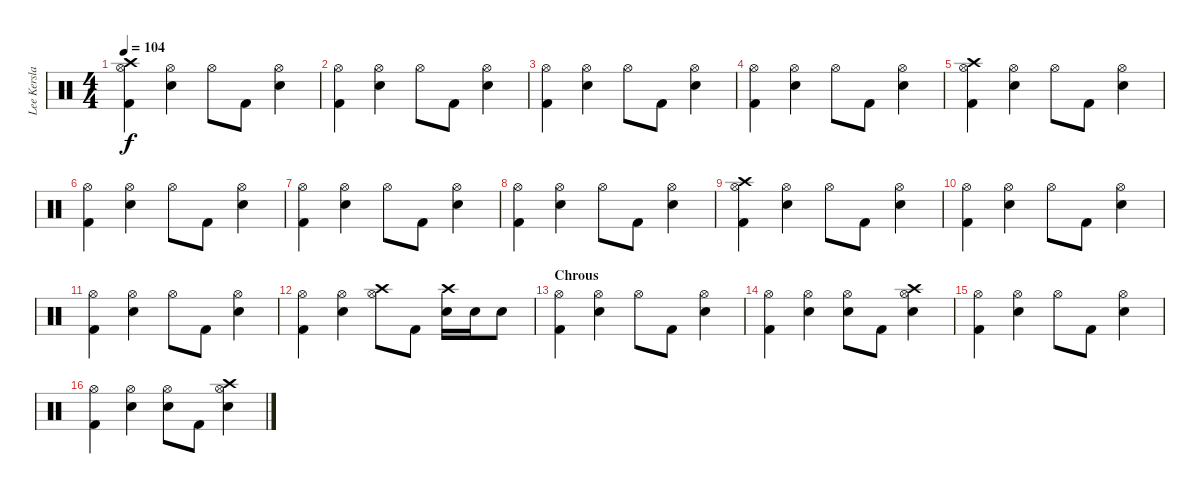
\track ("Lee Kerslake" "Lee Kersla") {instrument percussion}
\staff {score}
\articulation defaults
\ts (4 4)
\tempo 104
\clef neutral
\ks c
("Crash high (hit)" "Hi-Hat (open)" "Kick (hit) 2").4{dy f} ("Hi-Hat (open)" "Electric Snare (hit)").4 "Hi-Hat (open)".8 "Kick (hit) 2".8 ("Hi-Hat (open)" "Electric Snare (hit)").4 |
("Hi-Hat (open)" "Kick (hit) 2").4 ("Hi-Hat (open)" "Electric Snare (hit)").4 "Hi-Hat (open)".8 "Kick (hit) 2".8 ("Hi-Hat (open)" "Electric Snare (hit)").4 |
("Hi-Hat (open)" "Kick (hit) 2").4 ("Hi-Hat (open)" "Electric Snare (hit)").4 "Hi-Hat (open)".8 "Kick (hit) 2".8 ("Hi-Hat (open)" "Electric Snare (hit)").4 |
("Hi-Hat (open)" "Kick (hit) 2").4 ("Hi-Hat (open)" "Electric Snare (hit)").4 "Hi-Hat (open)".8 "Kick (hit) 2".8 ("Hi-Hat (open)" "Electric Snare (hit)").4 |
("Crash high (hit)" "Hi-Hat (open)" "Kick (hit) 2").4 ("Hi-Hat (open)" "Electric Snare (hit)").4 "Hi-Hat (open)".8 "Kick (hit) 2".8 ("Hi-Hat (open)" "Electric Snare (hit)").4 |
("Hi-Hat (open)" "Kick (hit) 2").4 ("Hi-Hat (open)" "Electric Snare (hit)").4 "Hi-Hat (open)".8 "Kick (hit) 2".8 ("Hi-Hat (open)" "Electric Snare (hit)").4 |
("Hi-Hat (open)" "Kick (hit) 2").4 ("Hi-Hat (open)" "Electric Snare (hit)").4 "Hi-Hat (open)".8 "Kick (hit) 2".8 ("Hi-Hat (open)" "Electric Snare (hit)").4 |
("Hi-Hat (open)" "Kick (hit) 2").4 ("Hi-Hat (open)" "Electric Snare (hit)").4 "Hi-Hat (open)".8 "Kick (hit) 2".8 ("Hi-Hat (open)" "Electric Snare (hit)").4 |
("Crash high (hit)" "Hi-Hat (open)" "Kick (hit) 2").4 ("Hi-Hat (open)" "Electric Snare (hit)").4 "Hi-Hat (open)".8 "Kick (hit) 2".8 ("Hi-Hat (open)" "Electric Snare (hit)").4 |
("Hi-Hat (open)" "Kick (hit) 2").4 ("Hi-Hat (open)" "Electric Snare (hit)").4 "Hi-Hat (open)".8 "Kick (hit) 2".8 ("Hi-Hat (open)" "Electric Snare (hit)").4 |
("Hi-Hat (open)" "Kick (hit) 2").4 ("Hi-Hat (open)" "Electric Snare (hit)").4 "Hi-Hat (open)".8 "Kick (hit) 2".8 ("Hi-Hat (open)" "Electric Snare (hit)").4 |
("Hi-Hat (open)" "Kick (hit) 2").4 ("Hi-Hat (open)" "Electric Snare (hit)").4 ("Crash high (hit)" "Hi-Hat (open)").8 "Kick (hit) 2".8 ("Crash high (hit)" "Electric Snare (hit)").16 "Electric Snare (hit)".16 "Electric Snare (hit)".8 |
\section ("" "Chrous")
("Hi-Hat (open)" "Kick (hit) 2").4 ("Hi-Hat (open)" "Electric Snare (hit)").4 "Hi-Hat (open)".8 "Kick (hit) 2".8 ("Hi-Hat (open)" "Electric Snare (hit)").4 |
("Hi-Hat (open)" "Kick (hit) 2").4 ("Hi-Hat (open)" "Electric Snare (hit)").4 ("Hi-Hat (open)" "Electric Snare (hit)").8 "Kick (hit) 2".8 ("Crash high (hit)" "Hi-Hat (open)" "Electric Snare (hit)").4 |
("Hi-Hat (open)" "Kick (hit) 2").4 ("Hi-Hat (open)" "Electric Snare (hit)").4 "Hi-Hat (open)".8 "Kick (hit) 2".8 ("Hi-Hat (open)" "Electric Snare (hit)").4 |
("Hi-Hat (open)" "Kick (hit) 2").4 ("Hi-Hat (open)" "Electric Snare (hit)").4 ("Hi-Hat (open)" "Electric Snare (hit)").8 "Kick (hit) 2".8 ("Crash high (hit)" "Hi-Hat (open)" "Electric Snare (hit)").4
